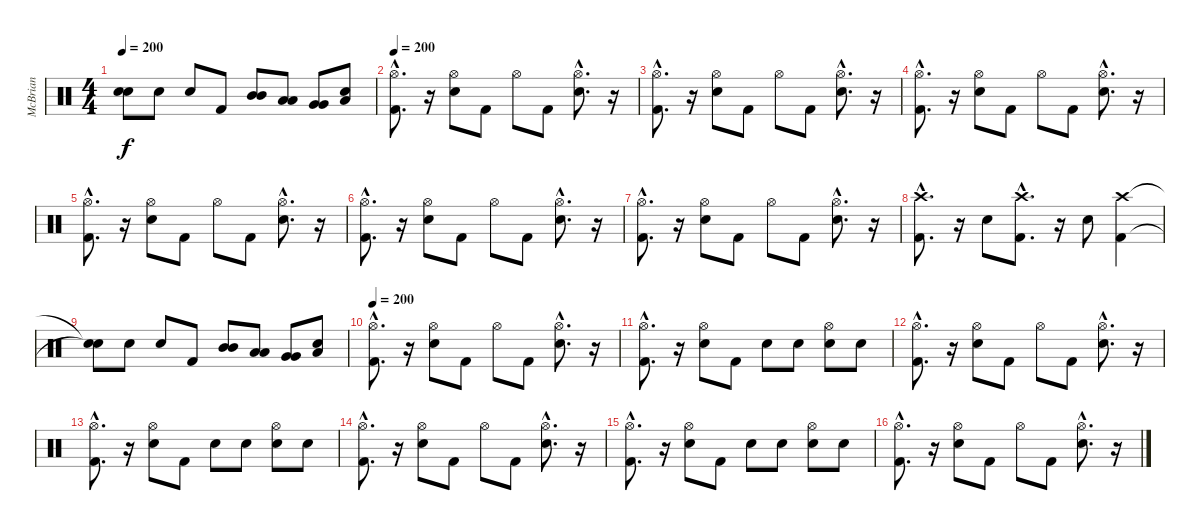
\track ("McBrian" "McBrian") {instrument percussion}
\staff {score}
\articulation defaults
\ts (4 4)
\tempo 200
\clef neutral
\ks c
("Snare (hit)"{t} "Snare (hit)"{t}).8{dy f} "Snare (hit) 2".8 "Snare (hit) 2".8 "Kick (hit) 2".8 ("Mid Tom (hit)" "Mid Tom (hit)").8 ("Low Tom (hit)" "Low Tom (hit)").8 ("Very Low Tom (hit)" "Very Low Tom (hit)").8 ("Snare (hit)" "Low Floor Tom (hit)").8 |
\tempo 200
("Hi-Hat (open)"{hac} "Kick (hit) 2"{hac}).8{d} r.16 ("Snare (hit) 2" "Hi-Hat (open)").8 "Kick (hit) 2".8 "Hi-Hat (open)".8 "Kick (hit) 2".8 ("Hi-Hat (open)"{hac} "Snare (hit) 2"{hac}).8{d} r.16 |
("Hi-Hat (open)"{hac} "Kick (hit) 2"{hac}).8{d} r.16 ("Snare (hit) 2" "Hi-Hat (open)").8 "Kick (hit) 2".8 "Hi-Hat (open)".8 "Kick (hit) 2".8 ("Hi-Hat (open)"{hac} "Snare (hit) 2"{hac}).8{d} r.16 |
("Hi-Hat (open)"{hac} "Kick (hit) 2"{hac}).8{d} r.16 ("Snare (hit) 2" "Hi-Hat (open)").8 "Kick (hit) 2".8 "Hi-Hat (open)".8 "Kick (hit) 2".8 ("Hi-Hat (open)"{hac} "Snare (hit) 2"{hac}).8{d} r.16 |
("Hi-Hat (open)"{hac} "Kick (hit) 2"{hac}).8{d} r.16 ("Snare (hit) 2" "Hi-Hat (open)").8 "Kick (hit) 2".8 "Hi-Hat (open)".8 "Kick (hit) 2".8 ("Hi-Hat (open)"{hac} "Snare (hit) 2"{hac}).8{d} r.16 |
("Hi-Hat (open)"{hac} "Kick (hit) 2"{hac}).8{d} r.16 ("Snare (hit) 2" "Hi-Hat (open)").8 "Kick (hit) 2".8 "Hi-Hat (open)".8 "Kick (hit) 2".8 ("Hi-Hat (open)"{hac} "Snare (hit) 2"{hac}).8{d} r.16 |
("Hi-Hat (open)"{hac} "Kick (hit) 2"{hac}).8{d} r.16 ("Snare (hit) 2" "Hi-Hat (open)").8 "Kick (hit) 2".8 "Hi-Hat (open)".8 "Kick (hit) 2".8 ("Hi-Hat (open)"{hac} "Snare (hit) 2"{hac}).8{d} r.16 |
("Crash high (hit)"{hac} "Kick (hit) 2"{hac}).8{d} r.16 "Snare (hit) 2".8 ("Crash high (hit)"{hac} "Kick (hit) 2"{hac}).8{d} r.16 "Snare (hit) 2".8 ("Crash high (hit)" "Kick (hit) 2").4 |
("Snare (hit)"{t} "Snare (hit)"{t}).8 "Snare (hit) 2".8 "Snare (hit) 2".8 "Kick (hit) 2".8 ("Mid Tom (hit)" "Mid Tom (hit)").8 ("Low Tom (hit)" "Low Tom (hit)").8 ("Very Low Tom (hit)" "Very Low Tom (hit)").8 ("Snare (hit)" "Low Floor Tom (hit)").8 |
\tempo 200
("Hi-Hat (open)"{hac} "Kick (hit) 2"{hac}).8{d} r.16 ("Snare (hit) 2" "Hi-Hat (open)").8 "Kick (hit) 2".8 "Hi-Hat (open)".8 "Kick (hit) 2".8 ("Hi-Hat (open)"{hac} "Snare (hit) 2"{hac}).8{d} r.16 |
("Hi-Hat (open)"{hac} "Kick (hit) 2"{hac}).8{d} r.16 ("Snare (hit) 2" "Hi-Hat (open)").8 "Kick (hit) 2".8 "Snare (hit) 2".8 "Snare (hit) 2".8 ("Hi-Hat (open)" "Snare (hit) 2").8 "Snare (hit) 2".8 |
("Hi-Hat (open)"{hac} "Kick (hit) 2"{hac}).8{d} r.16 ("Snare (hit) 2" "Hi-Hat (open)").8 "Kick (hit) 2".8 "Hi-Hat (open)".8 "Kick (hit) 2".8 ("Hi-Hat (open)"{hac} "Snare (hit) 2"{hac}).8{d} r.16 |
("Hi-Hat (open)"{hac} "Kick (hit) 2"{hac}).8{d} r.16 ("Snare (hit) 2" "Hi-Hat (open)").8 "Kick (hit) 2".8 "Snare (hit) 2".8 "Snare (hit) 2".8 ("Hi-Hat (open)" "Snare (hit) 2").8 "Snare (hit) 2".8 |
("Hi-Hat (open)"{hac} "Kick (hit) 2"{hac}).8{d} r.16 ("Snare (hit) 2" "Hi-Hat (open)").8 "Kick (hit) 2".8 "Hi-Hat (open)".8 "Kick (hit) 2".8 ("Hi-Hat (open)"{hac} "Snare (hit) 2"{hac}).8{d} r.16 |
("Hi-Hat (open)"{hac} "Kick (hit) 2"{hac}).8{d} r.16 ("Snare (hit) 2" "Hi-Hat (open)").8 "Kick (hit) 2".8 "Snare (hit) 2".8 "Snare (hit) 2".8 ("Hi-Hat (open)" "Snare (hit) 2").8 "Snare (hit) 2".8 |
("Hi-Hat (open)"{hac} "Kick (hit) 2"{hac}).8{d} r.16 ("Snare (hit) 2" "Hi-Hat (open)").8 "Kick (hit) 2".8 "Hi-Hat (open)".8 "Kick (hit) 2".8 ("Hi-Hat (open)"{hac} "Snare (hit) 2"{hac}).8{d} r.16
